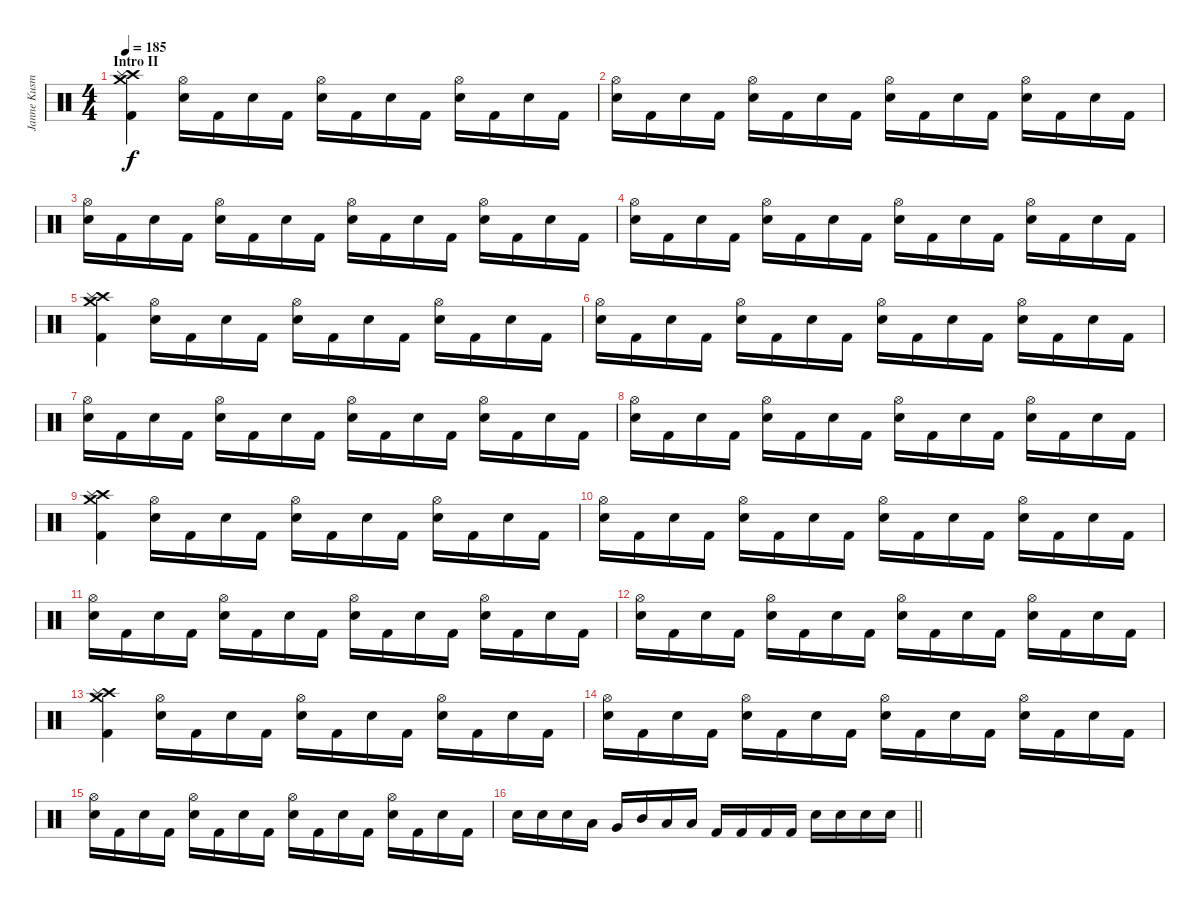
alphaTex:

\track ("Janne Kusmin" "Janne Kusm") {instrument percussion}
\staff {score}
\articulation defaults
\ts (4 4)
\section ("" "Intro II")
\tempo 185
\clef neutral
\ks c
("Crash medium (hit)" "Crash high (hit)" "Splash (hit)" "Kick (hit) 2").4{dy f} ("Hi-Hat (open)" "Electric Snare (hit)").16 "Kick (hit) 2".16 "Electric Snare (hit)".16 "Kick (hit) 2".16 ("Hi-Hat (open)" "Electric Snare (hit)").16 "Kick (hit) 2".16 "Electric Snare (hit)".16 "Kick (hit) 2".16 ("Hi-Hat (open)" "Electric Snare (hit)").16 "Kick (hit) 2".16 "Electric Snare (hit)".16 "Kick (hit) 2".16 |
("Hi-Hat (open)" "Electric Snare (hit)").16 "Kick (hit) 2".16 "Electric Snare (hit)".16 "Kick (hit) 2".16 ("Hi-Hat (open)" "Electric Snare (hit)").16 "Kick (hit) 2".16 "Electric Snare (hit)".16 "Kick (hit) 2".16 ("Hi-Hat (open)" "Electric Snare (hit)").16 "Kick (hit) 2".16 "Electric Snare (hit)".16 "Kick (hit) 2".16 ("Hi-Hat (open)" "Electric Snare (hit)").16 "Kick (hit) 2".16 "Electric Snare (hit)".16 "Kick (hit) 2".16 |
("Hi-Hat (open)" "Electric Snare (hit)").16 "Kick (hit) 2".16 "Electric Snare (hit)".16 "Kick (hit) 2".16 ("Hi-Hat (open)" "Electric Snare (hit)").16 "Kick (hit) 2".16 "Electric Snare (hit)".16 "Kick (hit) 2".16 ("Hi-Hat (open)" "Electric Snare (hit)").16 "Kick (hit) 2".16 "Electric Snare (hit)".16 "Kick (hit) 2".16 ("Hi-Hat (open)" "Electric Snare (hit)").16 "Kick (hit) 2".16 "Electric Snare (hit)".16 "Kick (hit) 2".16 |
("Hi-Hat (open)" "Electric Snare (hit)").16 "Kick (hit) 2".16 "Electric Snare (hit)".16 "Kick (hit) 2".16 ("Hi-Hat (open)" "Electric Snare (hit)").16 "Kick (hit) 2".16 "Electric Snare (hit)".16 "Kick (hit) 2".16 ("Hi-Hat (open)" "Electric Snare (hit)").16 "Kick (hit) 2".16 "Electric Snare (hit)".16 "Kick (hit) 2".16 ("Hi-Hat (open)" "Electric Snare (hit)").16 "Kick (hit) 2".16 "Electric Snare (hit)".16 "Kick (hit) 2".16 |
("Crash medium (hit)" "Crash high (hit)" "Splash (hit)" "Kick (hit) 2").4 ("Hi-Hat (open)" "Electric Snare (hit)").16 "Kick (hit) 2".16 "Electric Snare (hit)".16 "Kick (hit) 2".16 ("Hi-Hat (open)" "Electric Snare (hit)").16 "Kick (hit) 2".16 "Electric Snare (hit)".16 "Kick (hit) 2".16 ("Hi-Hat (open)" "Electric Snare (hit)").16 "Kick (hit) 2".16 "Electric Snare (hit)".16 "Kick (hit) 2".16 |
("Hi-Hat (open)" "Electric Snare (hit)").16 "Kick (hit) 2".16 "Electric Snare (hit)".16 "Kick (hit) 2".16 ("Hi-Hat (open)" "Electric Snare (hit)").16 "Kick (hit) 2".16 "Electric Snare (hit)".16 "Kick (hit) 2".16 ("Hi-Hat (open)" "Electric Snare (hit)").16 "Kick (hit) 2".16 "Electric Snare (hit)".16 "Kick (hit) 2".16 ("Hi-Hat (open)" "Electric Snare (hit)").16 "Kick (hit) 2".16 "Electric Snare (hit)".16 "Kick (hit) 2".16 |
("Hi-Hat (open)" "Electric Snare (hit)").16 "Kick (hit) 2".16 "Electric Snare (hit)".16 "Kick (hit) 2".16 ("Hi-Hat (open)" "Electric Snare (hit)").16 "Kick (hit) 2".16 "Electric Snare (hit)".16 "Kick (hit) 2".16 ("Hi-Hat (open)" "Electric Snare (hit)").16 "Kick (hit) 2".16 "Electric Snare (hit)".16 "Kick (hit) 2".16 ("Hi-Hat (open)" "Electric Snare (hit)").16 "Kick (hit) 2".16 "Electric Snare (hit)".16 "Kick (hit) 2".16 |
("Hi-Hat (open)" "Electric Snare (hit)").16 "Kick (hit) 2".16 "Electric Snare (hit)".16 "Kick (hit) 2".16 ("Hi-Hat (open)" "Electric Snare (hit)").16 "Kick (hit) 2".16 "Electric Snare (hit)".16 "Kick (hit) 2".16 ("Hi-Hat (open)" "Electric Snare (hit)").16 "Kick (hit) 2".16 "Electric Snare (hit)".16 "Kick (hit) 2".16 ("Hi-Hat (open)" "Electric Snare (hit)").16 "Kick (hit) 2".16 "Electric Snare (hit)".16 "Kick (hit) 2".16 |
("Crash medium (hit)" "Crash high (hit)" "Splash (hit)" "Kick (hit) 2").4 ("Hi-Hat (open)" "Electric Snare (hit)").16 "Kick (hit) 2".16 "Electric Snare (hit)".16 "Kick (hit) 2".16 ("Hi-Hat (open)" "Electric Snare (hit)").16 "Kick (hit) 2".16 "Electric Snare (hit)".16 "Kick (hit) 2".16 ("Hi-Hat (open)" "Electric Snare (hit)").16 "Kick (hit) 2".16 "Electric Snare (hit)".16 "Kick (hit) 2".16 |
("Hi-Hat (open)" "Electric Snare (hit)").16 "Kick (hit) 2".16 "Electric Snare (hit)".16 "Kick (hit) 2".16 ("Hi-Hat (open)" "Electric Snare (hit)").16 "Kick (hit) 2".16 "Electric Snare (hit)".16 "Kick (hit) 2".16 ("Hi-Hat (open)" "Electric Snare (hit)").16 "Kick (hit) 2".16 "Electric Snare (hit)".16 "Kick (hit) 2".16 ("Hi-Hat (open)" "Electric Snare (hit)").16 "Kick (hit) 2".16 "Electric Snare (hit)".16 "Kick (hit) 2".16 |
("Hi-Hat (open)" "Electric Snare (hit)").16 "Kick (hit) 2".16 "Electric Snare (hit)".16 "Kick (hit) 2".16 ("Hi-Hat (open)" "Electric Snare (hit)").16 "Kick (hit) 2".16 "Electric Snare (hit)".16 "Kick (hit) 2".16 ("Hi-Hat (open)" "Electric Snare (hit)").16 "Kick (hit) 2".16 "Electric Snare (hit)".16 "Kick (hit) 2".16 ("Hi-Hat (open)" "Electric Snare (hit)").16 "Kick (hit) 2".16 "Electric Snare (hit)".16 "Kick (hit) 2".16 |
("Hi-Hat (open)" "Electric Snare (hit)").16 "Kick (hit) 2".16 "Electric Snare (hit)".16 "Kick (hit) 2".16 ("Hi-Hat (open)" "Electric Snare (hit)").16 "Kick (hit) 2".16 "Electric Snare (hit)".16 "Kick (hit) 2".16 ("Hi-Hat (open)" "Electric Snare (hit)").16 "Kick (hit) 2".16 "Electric Snare (hit)".16 "Kick (hit) 2".16 ("Hi-Hat (open)" "Electric Snare (hit)").16 "Kick (hit) 2".16 "Electric Snare (hit)".16 "Kick (hit) 2".16 |
("Crash medium (hit)" "Crash high (hit)" "Splash (hit)" "Kick (hit) 2").4 ("Hi-Hat (open)" "Electric Snare (hit)").16 "Kick (hit) 2".16 "Electric Snare (hit)".16 "Kick (hit) 2".16 ("Hi-Hat (open)" "Electric Snare (hit)").16 "Kick (hit) 2".16 "Electric Snare (hit)".16 "Kick (hit) 2".16 ("Hi-Hat (open)" "Electric Snare (hit)").16 "Kick (hit) 2".16 "Electric Snare (hit)".16 "Kick (hit) 2".16 |
("Hi-Hat (open)" "Electric Snare (hit)").16 "Kick (hit) 2".16 "Electric Snare (hit)".16 "Kick (hit) 2".16 ("Hi-Hat (open)" "Electric Snare (hit)").16 "Kick (hit) 2".16 "Electric Snare (hit)".16 "Kick (hit) 2".16 ("Hi-Hat (open)" "Electric Snare (hit)").16 "Kick (hit) 2".16 "Electric Snare (hit)".16 "Kick (hit) 2".16 ("Hi-Hat (open)" "Electric Snare (hit)").16 "Kick (hit) 2".16 "Electric Snare (hit)".16 "Kick (hit) 2".16 |
("Hi-Hat (open)" "Electric Snare (hit)").16 "Kick (hit) 2".16 "Electric Snare (hit)".16 "Kick (hit) 2".16 ("Hi-Hat (open)" "Electric Snare (hit)").16 "Kick (hit) 2".16 "Electric Snare (hit)".16 "Kick (hit) 2".16 ("Hi-Hat (open)" "Electric Snare (hit)").16 "Kick (hit) 2".16 "Electric Snare (hit)".16 "Kick (hit) 2".16 ("Hi-Hat (open)" "Electric Snare (hit)").16 "Kick (hit) 2".16 "Electric Snare (hit)".16 "Kick (hit) 2".16 |
\barLineRight lightlight "Electric Snare (hit)".16 "Electric Snare (hit)".16 "Electric Snare (hit)".16 "Low Tom (hit)".16 "Very Low Tom (hit)".16 "Mid Tom (hit)".16 "Low Tom (hit)".16 "Low Floor Tom (hit)".16 "Kick (hit) 2".16 "Kick (hit) 2".16 "Kick (hit) 2".16 "Kick (hit) 2".16 "Electric Snare (hit)".16 "Electric Snare (hit)".16 "Electric Snare (hit)".16 "Electric Snare (hit)".16
